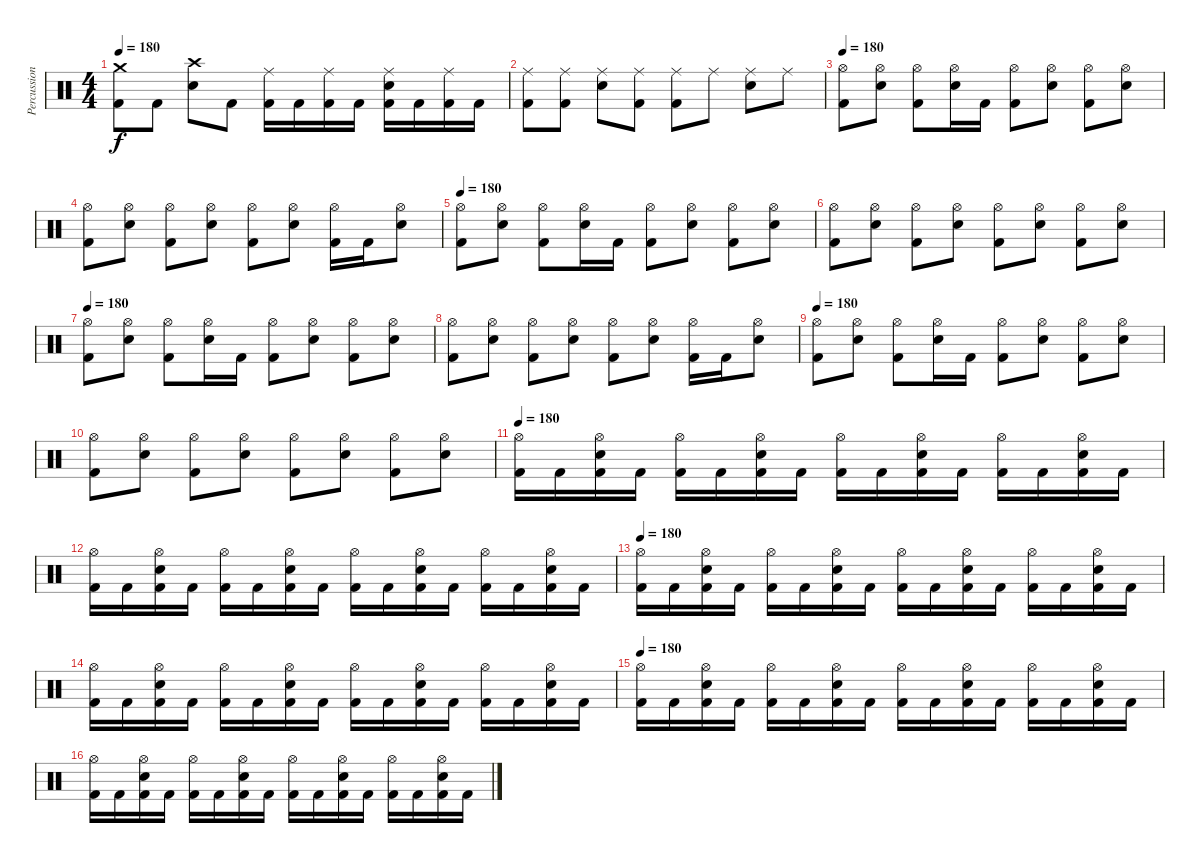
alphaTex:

\track ("Percussions" "Percussion") {instrument percussion}
\staff {score}
\articulation defaults
\ts (4 4)
\tempo 180
\clef neutral
\ks c
("Crash medium (hit)" "Kick (hit) 2").8{dy f} "Kick (hit) 2".8 ("Crash high (hit)" "Electric Snare (hit)").8 "Kick (hit) 2".8 ("Kick (hit) 2" "Ride (middle)").16 "Kick (hit) 2".16 ("Kick (hit) 2" "Ride (middle)").16 "Kick (hit) 2".16 ("Kick (hit) 2" "Electric Snare (hit)" "Ride (middle)").16 "Kick (hit) 2".16 ("Kick (hit) 2" "Ride (middle)").16 "Kick (hit) 2".16 |
("Ride (middle)" "Kick (hit) 2").8 ("Ride (middle)" "Kick (hit) 2").8 ("Ride (middle)" "Electric Snare (hit)").8 ("Ride (middle)" "Kick (hit) 2").8 ("Ride (middle)" "Kick (hit) 2").8 "Ride (middle)".8 ("Ride (middle)" "Electric Snare (hit)").8 "Ride (middle)".8 |
\tempo 180
("Hi-Hat (open)" "Kick (hit) 2").8 ("Hi-Hat (open)" "Electric Snare (hit)").8 ("Hi-Hat (open)" "Kick (hit) 2").8 ("Hi-Hat (open)" "Electric Snare (hit)").16 "Kick (hit) 2".16 ("Hi-Hat (open)" "Kick (hit) 2").8 ("Hi-Hat (open)" "Electric Snare (hit)").8 ("Hi-Hat (open)" "Kick (hit) 2").8 ("Hi-Hat (open)" "Electric Snare (hit)").8 |
("Hi-Hat (open)" "Kick (hit) 2").8 ("Hi-Hat (open)" "Electric Snare (hit)").8 ("Hi-Hat (open)" "Kick (hit) 2").8 ("Hi-Hat (open)" "Electric Snare (hit)").8 ("Hi-Hat (open)" "Kick (hit) 2").8 ("Hi-Hat (open)" "Electric Snare (hit)").8 ("Hi-Hat (open)" "Kick (hit) 2").16 "Kick (hit) 2".16 ("Hi-Hat (open)" "Electric Snare (hit)").8 |
\tempo 180
("Hi-Hat (open)" "Kick (hit) 2").8 ("Hi-Hat (open)" "Electric Snare (hit)").8 ("Hi-Hat (open)" "Kick (hit) 2").8 ("Hi-Hat (open)" "Electric Snare (hit)").16 "Kick (hit) 2".16 ("Hi-Hat (open)" "Kick (hit) 2").8 ("Hi-Hat (open)" "Electric Snare (hit)").8 ("Hi-Hat (open)" "Kick (hit) 2").8 ("Hi-Hat (open)" "Electric Snare (hit)").8 |
("Hi-Hat (open)" "Kick (hit) 2").8 ("Hi-Hat (open)" "Electric Snare (hit)").8 ("Hi-Hat (open)" "Kick (hit) 2").8 ("Hi-Hat (open)" "Electric Snare (hit)").8 ("Hi-Hat (open)" "Kick (hit) 2").8 ("Hi-Hat (open)" "Electric Snare (hit)").8 ("Hi-Hat (open)" "Kick (hit) 2").8 ("Hi-Hat (open)" "Electric Snare (hit)").8 |
\tempo 180
("Hi-Hat (open)" "Kick (hit) 2").8 ("Hi-Hat (open)" "Electric Snare (hit)").8 ("Hi-Hat (open)" "Kick (hit) 2").8 ("Hi-Hat (open)" "Electric Snare (hit)").16 "Kick (hit) 2".16 ("Hi-Hat (open)" "Kick (hit) 2").8 ("Hi-Hat (open)" "Electric Snare (hit)").8 ("Hi-Hat (open)" "Kick (hit) 2").8 ("Hi-Hat (open)" "Electric Snare (hit)").8 |
("Hi-Hat (open)" "Kick (hit) 2").8 ("Hi-Hat (open)" "Electric Snare (hit)").8 ("Hi-Hat (open)" "Kick (hit) 2").8 ("Hi-Hat (open)" "Electric Snare (hit)").8 ("Hi-Hat (open)" "Kick (hit) 2").8 ("Hi-Hat (open)" "Electric Snare (hit)").8 ("Hi-Hat (open)" "Kick (hit) 2").16 "Kick (hit) 2".16 ("Hi-Hat (open)" "Electric Snare (hit)").8 |
\tempo 180
("Hi-Hat (open)" "Kick (hit) 2").8 ("Hi-Hat (open)" "Electric Snare (hit)").8 ("Hi-Hat (open)" "Kick (hit) 2").8 ("Hi-Hat (open)" "Electric Snare (hit)").16 "Kick (hit) 2".16 ("Hi-Hat (open)" "Kick (hit) 2").8 ("Hi-Hat (open)" "Electric Snare (hit)").8 ("Hi-Hat (open)" "Kick (hit) 2").8 ("Hi-Hat (open)" "Electric Snare (hit)").8 |
("Hi-Hat (open)" "Kick (hit) 2").8 ("Hi-Hat (open)" "Electric Snare (hit)").8 ("Hi-Hat (open)" "Kick (hit) 2").8 ("Hi-Hat (open)" "Electric Snare (hit)").8 ("Hi-Hat (open)" "Kick (hit) 2").8 ("Hi-Hat (open)" "Electric Snare (hit)").8 ("Hi-Hat (open)" "Kick (hit) 2").8 ("Hi-Hat (open)" "Electric Snare (hit)").8 |
\tempo 180
("Kick (hit) 2" "Hi-Hat (open)").16 "Kick (hit) 2".16 ("Kick (hit) 2" "Electric Snare (hit)" "Hi-Hat (open)").16 "Kick (hit) 2".16 ("Kick (hit) 2" "Hi-Hat (open)").16 "Kick (hit) 2".16 ("Kick (hit) 2" "Electric Snare (hit)" "Hi-Hat (open)").16 "Kick (hit) 2".16 ("Kick (hit) 2" "Hi-Hat (open)").16 "Kick (hit) 2".16 ("Kick (hit) 2" "Electric Snare (hit)" "Hi-Hat (open)").16 "Kick (hit) 2".16 ("Kick (hit) 2" "Hi-Hat (open)").16 "Kick (hit) 2".16 ("Kick (hit) 2" "Electric Snare (hit)" "Hi-Hat (open)").16 "Kick (hit) 2".16 |
("Kick (hit) 2" "Hi-Hat (open)").16 "Kick (hit) 2".16 ("Kick (hit) 2" "Electric Snare (hit)" "Hi-Hat (open)").16 "Kick (hit) 2".16 ("Kick (hit) 2" "Hi-Hat (open)").16 "Kick (hit) 2".16 ("Kick (hit) 2" "Electric Snare (hit)" "Hi-Hat (open)").16 "Kick (hit) 2".16 ("Kick (hit) 2" "Hi-Hat (open)").16 "Kick (hit) 2".16 ("Kick (hit) 2" "Electric Snare (hit)" "Hi-Hat (open)").16 "Kick (hit) 2".16 ("Kick (hit) 2" "Hi-Hat (open)").16 "Kick (hit) 2".16 ("Kick (hit) 2" "Electric Snare (hit)" "Hi-Hat (open)").16 "Kick (hit) 2".16 |
\tempo 180
("Kick (hit) 2" "Hi-Hat (open)").16 "Kick (hit) 2".16 ("Kick (hit) 2" "Electric Snare (hit)" "Hi-Hat (open)").16 "Kick (hit) 2".16 ("Kick (hit) 2" "Hi-Hat (open)").16 "Kick (hit) 2".16 ("Kick (hit) 2" "Electric Snare (hit)" "Hi-Hat (open)").16 "Kick (hit) 2".16 ("Kick (hit) 2" "Hi-Hat (open)").16 "Kick (hit) 2".16 ("Kick (hit) 2" "Electric Snare (hit)" "Hi-Hat (open)").16 "Kick (hit) 2".16 ("Kick (hit) 2" "Hi-Hat (open)").16 "Kick (hit) 2".16 ("Kick (hit) 2" "Electric Snare (hit)" "Hi-Hat (open)").16 "Kick (hit) 2".16 |
("Kick (hit) 2" "Hi-Hat (open)").16 "Kick (hit) 2".16 ("Kick (hit) 2" "Electric Snare (hit)" "Hi-Hat (open)").16 "Kick (hit) 2".16 ("Kick (hit) 2" "Hi-Hat (open)").16 "Kick (hit) 2".16 ("Kick (hit) 2" "Electric Snare (hit)" "Hi-Hat (open)").16 "Kick (hit) 2".16 ("Kick (hit) 2" "Hi-Hat (open)").16 "Kick (hit) 2".16 ("Kick (hit) 2" "Electric Snare (hit)" "Hi-Hat (open)").16 "Kick (hit) 2".16 ("Kick (hit) 2" "Hi-Hat (open)").16 "Kick (hit) 2".16 ("Kick (hit) 2" "Electric Snare (hit)" "Hi-Hat (open)").16 "Kick (hit) 2".16 |
\tempo 180
("Kick (hit) 2" "Hi-Hat (open)").16 "Kick (hit) 2".16 ("Kick (hit) 2" "Electric Snare (hit)" "Hi-Hat (open)").16 "Kick (hit) 2".16 ("Kick (hit) 2" "Hi-Hat (open)").16 "Kick (hit) 2".16 ("Kick (hit) 2" "Electric Snare (hit)" "Hi-Hat (open)").16 "Kick (hit) 2".16 ("Kick (hit) 2" "Hi-Hat (open)").16 "Kick (hit) 2".16 ("Kick (hit) 2" "Electric Snare (hit)" "Hi-Hat (open)").16 "Kick (hit) 2".16 ("Kick (hit) 2" "Hi-Hat (open)").16 "Kick (hit) 2".16 ("Kick (hit) 2" "Electric Snare (hit)" "Hi-Hat (open)").16 "Kick (hit) 2".16 |
("Kick (hit) 2" "Hi-Hat (open)").16 "Kick (hit) 2".16 ("Kick (hit) 2" "Electric Snare (hit)" "Hi-Hat (open)").16 "Kick (hit) 2".16 ("Kick (hit) 2" "Hi-Hat (open)").16 "Kick (hit) 2".16 ("Kick (hit) 2" "Electric Snare (hit)" "Hi-Hat (open)").16 "Kick (hit) 2".16 ("Kick (hit) 2" "Hi-Hat (open)").16 "Kick (hit) 2".16 ("Kick (hit) 2" "Electric Snare (hit)" "Hi-Hat (open)").16 "Kick (hit) 2".16 ("Kick (hit) 2" "Hi-Hat (open)").16 "Kick (hit) 2".16 ("Kick (hit) 2" "Electric Snare (hit)" "Hi-Hat (open)").16 "Kick (hit) 2".16
